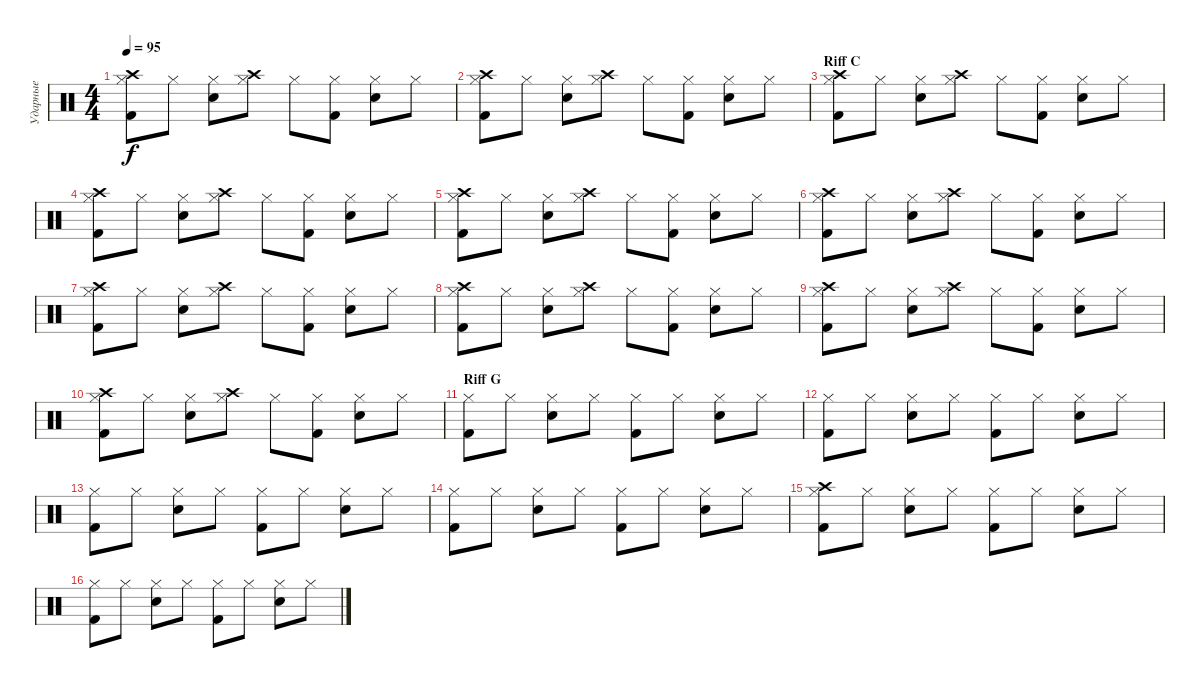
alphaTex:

\track ("Ударные" "Ударные") {instrument percussion}
\staff {score}
\articulation defaults
\ts (4 4)
\tempo 95
\clef neutral
\ks c
("Crash high (hit)" "Hi-Hat (closed)" "Kick (hit) 2").8{dy f} "Hi-Hat (closed)".8 ("Hi-Hat (closed)" "Snare (hit) 2").8 ("Crash high (hit)" "Hi-Hat (closed)").8 "Hi-Hat (closed)".8 ("Hi-Hat (closed)" "Kick (hit) 2").8 ("Hi-Hat (closed)" "Snare (hit) 2").8 "Hi-Hat (closed)".8 |
("Crash high (hit)" "Hi-Hat (closed)" "Kick (hit) 2").8 "Hi-Hat (closed)".8 ("Hi-Hat (closed)" "Snare (hit) 2").8 ("Crash high (hit)" "Hi-Hat (closed)").8 "Hi-Hat (closed)".8 ("Hi-Hat (closed)" "Kick (hit) 2").8 ("Hi-Hat (closed)" "Snare (hit) 2").8 "Hi-Hat (closed)".8 |
\section ("" "Riff C")
("Crash high (hit)" "Hi-Hat (closed)" "Kick (hit) 2").8 "Hi-Hat (closed)".8 ("Hi-Hat (closed)" "Snare (hit) 2").8 ("Crash high (hit)" "Hi-Hat (closed)").8 "Hi-Hat (closed)".8 ("Hi-Hat (closed)" "Kick (hit) 2").8 ("Hi-Hat (closed)" "Snare (hit) 2").8 "Hi-Hat (closed)".8 |
("Crash high (hit)" "Hi-Hat (closed)" "Kick (hit) 2").8 "Hi-Hat (closed)".8 ("Hi-Hat (closed)" "Snare (hit) 2").8 ("Crash high (hit)" "Hi-Hat (closed)").8 "Hi-Hat (closed)".8 ("Hi-Hat (closed)" "Kick (hit) 2").8 ("Hi-Hat (closed)" "Snare (hit) 2").8 "Hi-Hat (closed)".8 |
("Crash high (hit)" "Hi-Hat (closed)" "Kick (hit) 2").8 "Hi-Hat (closed)".8 ("Hi-Hat (closed)" "Snare (hit) 2").8 ("Crash high (hit)" "Hi-Hat (closed)").8 "Hi-Hat (closed)".8 ("Hi-Hat (closed)" "Kick (hit) 2").8 ("Hi-Hat (closed)" "Snare (hit) 2").8 "Hi-Hat (closed)".8 |
("Crash high (hit)" "Hi-Hat (closed)" "Kick (hit) 2").8 "Hi-Hat (closed)".8 ("Hi-Hat (closed)" "Snare (hit) 2").8 ("Crash high (hit)" "Hi-Hat (closed)").8 "Hi-Hat (closed)".8 ("Hi-Hat (closed)" "Kick (hit) 2").8 ("Hi-Hat (closed)" "Snare (hit) 2").8 "Hi-Hat (closed)".8 |
("Crash high (hit)" "Hi-Hat (closed)" "Kick (hit) 2").8 "Hi-Hat (closed)".8 ("Hi-Hat (closed)" "Snare (hit) 2").8 ("Crash high (hit)" "Hi-Hat (closed)").8 "Hi-Hat (closed)".8 ("Hi-Hat (closed)" "Kick (hit) 2").8 ("Hi-Hat (closed)" "Snare (hit) 2").8 "Hi-Hat (closed)".8 |
("Crash high (hit)" "Hi-Hat (closed)" "Kick (hit) 2").8 "Hi-Hat (closed)".8 ("Hi-Hat (closed)" "Snare (hit) 2").8 ("Crash high (hit)" "Hi-Hat (closed)").8 "Hi-Hat (closed)".8 ("Hi-Hat (closed)" "Kick (hit) 2").8 ("Hi-Hat (closed)" "Snare (hit) 2").8 "Hi-Hat (closed)".8 |
("Crash high (hit)" "Hi-Hat (closed)" "Kick (hit) 2").8 "Hi-Hat (closed)".8 ("Hi-Hat (closed)" "Snare (hit) 2").8 ("Crash high (hit)" "Hi-Hat (closed)").8 "Hi-Hat (closed)".8 ("Hi-Hat (closed)" "Kick (hit) 2").8 ("Hi-Hat (closed)" "Snare (hit) 2").8 "Hi-Hat (closed)".8 |
("Crash high (hit)" "Hi-Hat (closed)" "Kick (hit) 2").8 "Hi-Hat (closed)".8 ("Hi-Hat (closed)" "Snare (hit) 2").8 ("Crash high (hit)" "Hi-Hat (closed)").8 "Hi-Hat (closed)".8 ("Hi-Hat (closed)" "Kick (hit) 2").8 ("Hi-Hat (closed)" "Snare (hit) 2").8 "Hi-Hat (closed)".8 |
\section ("" "Riff G")
("Hi-Hat (closed)" "Kick (hit) 2").8 "Hi-Hat (closed)".8 ("Hi-Hat (closed)" "Snare (hit) 2").8 "Hi-Hat (closed)".8 ("Hi-Hat (closed)" "Kick (hit) 2").8 "Hi-Hat (closed)".8 ("Hi-Hat (closed)" "Snare (hit) 2").8 "Hi-Hat (closed)".8 |
("Hi-Hat (closed)" "Kick (hit) 2").8 "Hi-Hat (closed)".8 ("Hi-Hat (closed)" "Snare (hit) 2").8 "Hi-Hat (closed)".8 ("Hi-Hat (closed)" "Kick (hit) 2").8 "Hi-Hat (closed)".8 ("Hi-Hat (closed)" "Snare (hit) 2").8 "Hi-Hat (closed)".8 |
("Hi-Hat (closed)" "Kick (hit) 2").8 "Hi-Hat (closed)".8 ("Hi-Hat (closed)" "Snare (hit) 2").8 "Hi-Hat (closed)".8 ("Hi-Hat (closed)" "Kick (hit) 2").8 "Hi-Hat (closed)".8 ("Hi-Hat (closed)" "Snare (hit) 2").8 "Hi-Hat (closed)".8 |
("Hi-Hat (closed)" "Kick (hit) 2").8 "Hi-Hat (closed)".8 ("Hi-Hat (closed)" "Snare (hit) 2").8 "Hi-Hat (closed)".8 ("Hi-Hat (closed)" "Kick (hit) 2").8 "Hi-Hat (closed)".8 ("Hi-Hat (closed)" "Snare (hit) 2").8 "Hi-Hat (closed)".8 |
("Crash high (hit)" "Hi-Hat (closed)" "Kick (hit) 2").8 "Hi-Hat (closed)".8 ("Hi-Hat (closed)" "Snare (hit) 2").8 "Hi-Hat (closed)".8 ("Hi-Hat (closed)" "Kick (hit) 2").8 "Hi-Hat (closed)".8 ("Hi-Hat (closed)" "Snare (hit) 2").8 "Hi-Hat (closed)".8 |
("Hi-Hat (closed)" "Kick (hit) 2").8 "Hi-Hat (closed)".8 ("Hi-Hat (closed)" "Snare (hit) 2").8 "Hi-Hat (closed)".8 ("Hi-Hat (closed)" "Kick (hit) 2").8 "Hi-Hat (closed)".8 ("Hi-Hat (closed)" "Snare (hit) 2").8 "Hi-Hat (closed)".8
